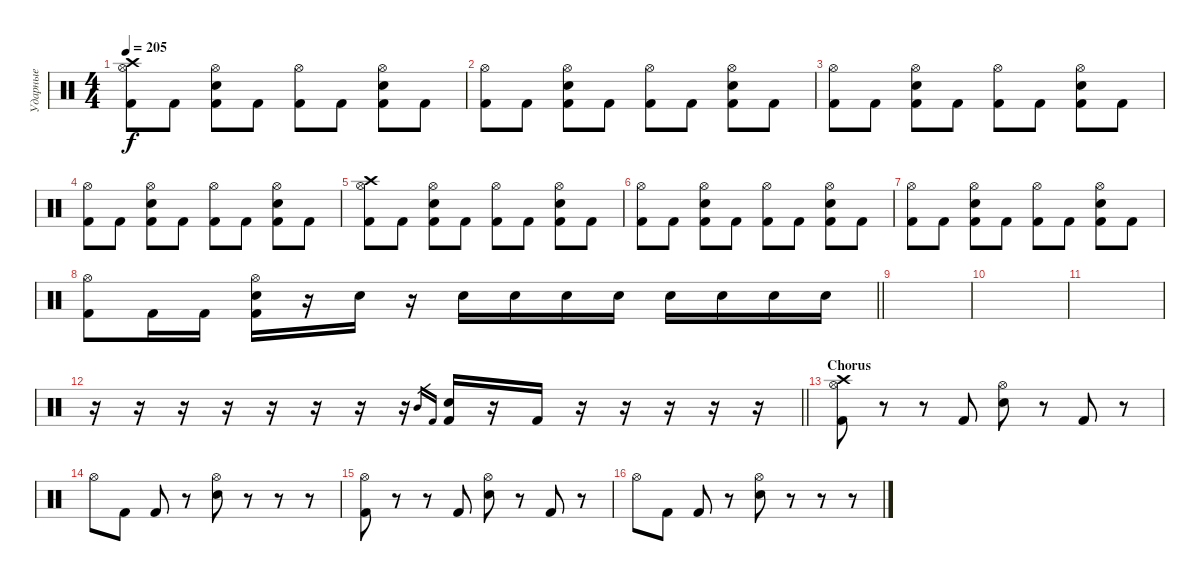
\track ("Ударные" "Ударные") {instrument percussion}
\staff {score}
\articulation defaults
\ts (4 4)
\tempo 205
\clef neutral
\ks c
("Hi-Hat (open)" "Crash high (hit)" "Kick (hit) 2").8{dy f} "Kick (hit) 2".8 ("Hi-Hat (open)" "Snare (hit) 2" "Kick (hit) 2").8 "Kick (hit) 2".8 ("Hi-Hat (open)" "Kick (hit) 2").8 "Kick (hit) 2".8 ("Hi-Hat (open)" "Snare (hit) 2" "Kick (hit) 2").8 "Kick (hit) 2".8 |
("Hi-Hat (open)" "Kick (hit) 2").8 "Kick (hit) 2".8 ("Hi-Hat (open)" "Snare (hit) 2" "Kick (hit) 2").8 "Kick (hit) 2".8 ("Hi-Hat (open)" "Kick (hit) 2").8 "Kick (hit) 2".8 ("Hi-Hat (open)" "Snare (hit) 2" "Kick (hit) 2").8 "Kick (hit) 2".8 |
("Hi-Hat (open)" "Kick (hit) 2").8 "Kick (hit) 2".8 ("Hi-Hat (open)" "Snare (hit) 2" "Kick (hit) 2").8 "Kick (hit) 2".8 ("Hi-Hat (open)" "Kick (hit) 2").8 "Kick (hit) 2".8 ("Hi-Hat (open)" "Snare (hit) 2" "Kick (hit) 2").8 "Kick (hit) 2".8 |
("Hi-Hat (open)" "Kick (hit) 2").8 "Kick (hit) 2".8 ("Hi-Hat (open)" "Snare (hit) 2" "Kick (hit) 2").8 "Kick (hit) 2".8 ("Hi-Hat (open)" "Kick (hit) 2").8 "Kick (hit) 2".8 ("Hi-Hat (open)" "Snare (hit) 2" "Kick (hit) 2").8 "Kick (hit) 2".8 |
("Hi-Hat (open)" "Crash high (hit)" "Kick (hit) 2").8 "Kick (hit) 2".8 ("Hi-Hat (open)" "Snare (hit) 2" "Kick (hit) 2").8 "Kick (hit) 2".8 ("Hi-Hat (open)" "Kick (hit) 2").8 "Kick (hit) 2".8 ("Hi-Hat (open)" "Snare (hit) 2" "Kick (hit) 2").8 "Kick (hit) 2".8 |
("Hi-Hat (open)" "Kick (hit) 2").8 "Kick (hit) 2".8 ("Hi-Hat (open)" "Snare (hit) 2" "Kick (hit) 2").8 "Kick (hit) 2".8 ("Hi-Hat (open)" "Kick (hit) 2").8 "Kick (hit) 2".8 ("Hi-Hat (open)" "Snare (hit) 2" "Kick (hit) 2").8 "Kick (hit) 2".8 |
("Hi-Hat (open)" "Kick (hit) 2").8 "Kick (hit) 2".8 ("Hi-Hat (open)" "Snare (hit) 2" "Kick (hit) 2").8 "Kick (hit) 2".8 ("Hi-Hat (open)" "Kick (hit) 2").8 "Kick (hit) 2".8 ("Hi-Hat (open)" "Snare (hit) 2" "Kick (hit) 2").8 "Kick (hit) 2".8 |
\barLineRight lightlight
("Hi-Hat (open)" "Kick (hit) 2").8 "Kick (hit) 2".16 "Kick (hit) 2".16 ("Hi-Hat (open)" "Snare (hit) 2" "Kick (hit) 2").16 r.16 "Snare (hit) 2".16 r.16 "Snare (hit) 2".16 "Snare (hit) 2".16 "Snare (hit) 2".16 "Snare (hit) 2".16 "Snare (hit) 2".16 "Snare (hit) 2".16 "Snare (hit) 2".16 "Snare (hit) 2".16 |
|
|
|
\barLineRight lightlight
r.16 r.16 r.16 r.16 r.16 r.16 r.16 r.16 "Mid Tom (hit)".16{gr} "Kick (hit) 2".16{gr} ("Kick (hit) 2" "Snare (hit) 2").16 r.16 "Kick (hit) 2".16 r.16 r.16 r.16 r.16 r.16 |
\section ("" "Chorus")
("Hi-Hat (open)" "Crash high (hit)" "Kick (hit) 2").8 r.8 r.8 "Kick (hit) 2".8 ("Hi-Hat (open)" "Snare (hit) 2").8 r.8 "Kick (hit) 2".8 r.8 |
"Hi-Hat (open)".8 "Kick (hit) 2".8 "Kick (hit) 2".8 r.8 ("Hi-Hat (open)" "Snare (hit) 2").8 r.8 r.8 r.8 |
("Hi-Hat (open)" "Kick (hit) 2").8 r.8 r.8 "Kick (hit) 2".8 ("Hi-Hat (open)" "Snare (hit) 2").8 r.8 "Kick (hit) 2".8 r.8 |
"Hi-Hat (open)".8 "Kick (hit) 2".8 "Kick (hit) 2".8 r.8 ("Hi-Hat (open)" "Snare (hit) 2").8 r.8 r.8 r.8
